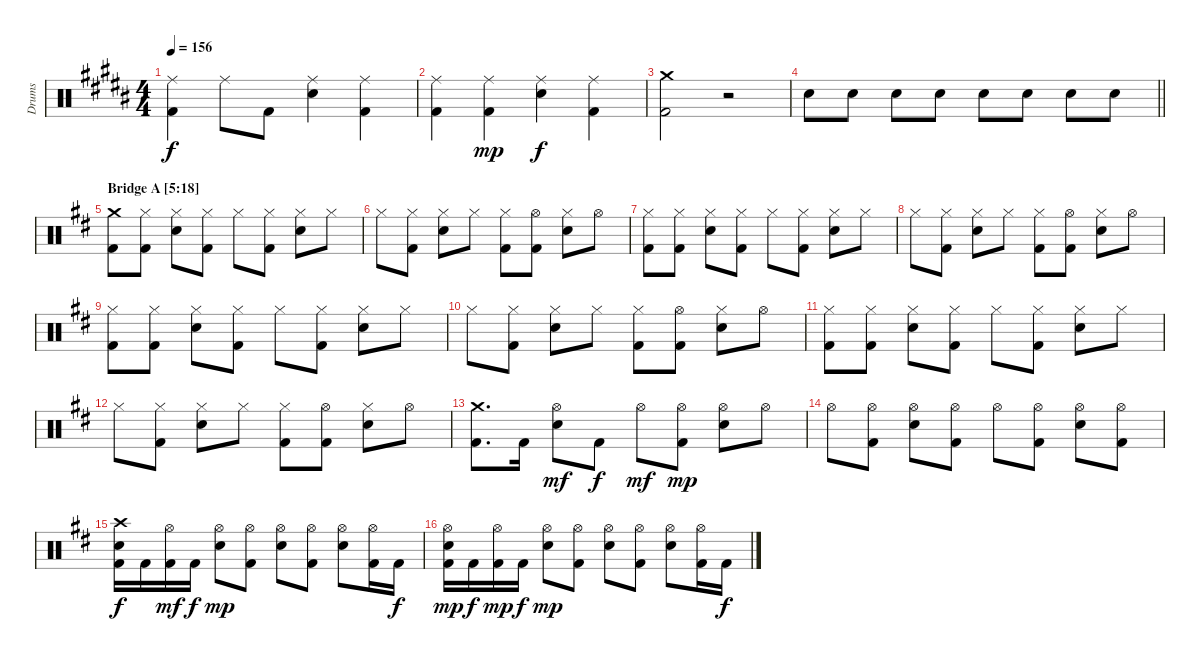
\track ("Drums" "Drums") {instrument percussion}
\staff {score}
\articulation defaults
\ts (4 4)
\tempo 156
\clef neutral
\ks g#minor
("Ride (middle)" "Kick (hit) 2").4{dy f} "Ride (middle)".8 "Kick (hit) 2".8 ("Ride (middle)" "Snare (hit) 2").4 ("Ride (middle)" "Kick (hit) 2").4 |
("Ride (middle)" "Kick (hit) 2").4 ("Ride (middle)" "Kick (hit) 2").4{dy mp} ("Ride (middle)" "Snare (hit) 2").4{dy f} ("Ride (middle)" "Kick (hit) 2").4 |
("Crash medium (hit)" "Kick (hit) 2").2 r.2 |
\barLineRight lightlight "Snare (hit) 2".8 "Snare (hit) 2".8 "Snare (hit) 2".8 "Snare (hit) 2".8 "Snare (hit) 2".8 "Snare (hit) 2".8 "Snare (hit) 2".8 "Snare (hit) 2".8
|
\section ("" "Bridge A [5:18]")
\ks d
("Crash medium (hit)" "Kick (hit) 2").8 ("Hi-Hat (closed)" "Kick (hit) 2").8 ("Hi-Hat (closed)" "Snare (hit) 2").8 ("Hi-Hat (closed)" "Kick (hit) 2").8 "Hi-Hat (closed)".8 ("Hi-Hat (closed)" "Kick (hit) 2").8 ("Hi-Hat (closed)" "Snare (hit) 2").8 "Hi-Hat (closed)".8 |
"Hi-Hat (closed)".8 ("Hi-Hat (closed)" "Kick (hit) 2").8 ("Hi-Hat (closed)" "Snare (hit) 2").8 "Hi-Hat (closed)".8 ("Hi-Hat (closed)" "Kick (hit) 2").8 ("Hi-Hat (open)" "Kick (hit) 2").8 ("Hi-Hat (closed)" "Snare (hit) 2").8 "Hi-Hat (open)".8 |
("Hi-Hat (closed)" "Kick (hit) 2").8 ("Hi-Hat (closed)" "Kick (hit) 2").8 ("Hi-Hat (closed)" "Snare (hit) 2").8 ("Hi-Hat (closed)" "Kick (hit) 2").8 "Hi-Hat (closed)".8 ("Hi-Hat (closed)" "Kick (hit) 2").8 ("Hi-Hat (closed)" "Snare (hit) 2").8 "Hi-Hat (closed)".8 |
"Hi-Hat (closed)".8 ("Hi-Hat (closed)" "Kick (hit) 2").8 ("Hi-Hat (closed)" "Snare (hit) 2").8 "Hi-Hat (closed)".8 ("Hi-Hat (closed)" "Kick (hit) 2").8 ("Hi-Hat (open)" "Kick (hit) 2").8 ("Hi-Hat (closed)" "Snare (hit) 2").8 "Hi-Hat (open)".8 |
("Hi-Hat (closed)" "Kick (hit) 2").8 ("Hi-Hat (closed)" "Kick (hit) 2").8 ("Hi-Hat (closed)" "Snare (hit) 2").8 ("Hi-Hat (closed)" "Kick (hit) 2").8 "Hi-Hat (closed)".8 ("Hi-Hat (closed)" "Kick (hit) 2").8 ("Hi-Hat (closed)" "Snare (hit) 2").8 "Hi-Hat (closed)".8 |
"Hi-Hat (closed)".8 ("Hi-Hat (closed)" "Kick (hit) 2").8 ("Hi-Hat (closed)" "Snare (hit) 2").8 "Hi-Hat (closed)".8 ("Hi-Hat (closed)" "Kick (hit) 2").8 ("Hi-Hat (open)" "Kick (hit) 2").8 ("Hi-Hat (closed)" "Snare (hit) 2").8 "Hi-Hat (open)".8 |
("Hi-Hat (closed)" "Kick (hit) 2").8 ("Hi-Hat (closed)" "Kick (hit) 2").8 ("Hi-Hat (closed)" "Snare (hit) 2").8 ("Hi-Hat (closed)" "Kick (hit) 2").8 "Hi-Hat (closed)".8 ("Hi-Hat (closed)" "Kick (hit) 2").8 ("Hi-Hat (closed)" "Snare (hit) 2").8 "Hi-Hat (closed)".8 |
"Hi-Hat (closed)".8 ("Hi-Hat (closed)" "Kick (hit) 2").8 ("Hi-Hat (closed)" "Snare (hit) 2").8 "Hi-Hat (closed)".8 ("Hi-Hat (closed)" "Kick (hit) 2").8 ("Hi-Hat (open)" "Kick (hit) 2").8 ("Hi-Hat (closed)" "Snare (hit) 2").8 "Hi-Hat (open)".8 |
("Crash medium (hit)" "Kick (hit) 2").8{d} "Kick (hit) 2".16 ("Hi-Hat (open)" "Snare (hit) 2").8{dy mf} "Kick (hit) 2".8{dy f} "Hi-Hat (open)".8{dy mf} ("Hi-Hat (open)" "Kick (hit) 2").8{dy mp} ("Hi-Hat (open)" "Snare (hit) 2").8 "Hi-Hat (open)".8 |
"Hi-Hat (open)".8 ("Hi-Hat (open)" "Kick (hit) 2").8 ("Hi-Hat (open)" "Snare (hit) 2").8 ("Hi-Hat (open)" "Kick (hit) 2").8 "Hi-Hat (open)".8 ("Hi-Hat (open)" "Kick (hit) 2").8 ("Hi-Hat (open)" "Snare (hit) 2").8 ("Hi-Hat (open)" "Kick (hit) 2").8 |
("Crash high (hit)" "Snare (hit) 2" "Kick (hit) 2").16{dy f} "Kick (hit) 2".16 ("Hi-Hat (open)" "Kick (hit) 2").16{dy mf} "Kick (hit) 2".16{dy f} ("Hi-Hat (open)" "Snare (hit) 2").8{dy mp} ("Hi-Hat (open)" "Kick (hit) 2").8 ("Hi-Hat (open)" "Snare (hit) 2").8 ("Hi-Hat (open)" "Kick (hit) 2").8 ("Hi-Hat (open)" "Snare (hit) 2").8 ("Hi-Hat (open)" "Kick (hit) 2").16 "Kick (hit) 2".16{dy f} |
("Hi-Hat (open)" "Snare (hit) 2" "Kick (hit) 2").16{dy mp} "Kick (hit) 2".16{dy f} ("Hi-Hat (open)" "Kick (hit) 2").16{dy mp} "Kick (hit) 2".16{dy f} ("Hi-Hat (open)" "Snare (hit) 2").8{dy mp} ("Hi-Hat (open)" "Kick (hit) 2").8 ("Hi-Hat (open)" "Snare (hit) 2").8 ("Hi-Hat (open)" "Kick (hit) 2").8 ("Hi-Hat (open)" "Snare (hit) 2").8 ("Hi-Hat (open)" "Kick (hit) 2").16 "Kick (hit) 2".16{dy f}
